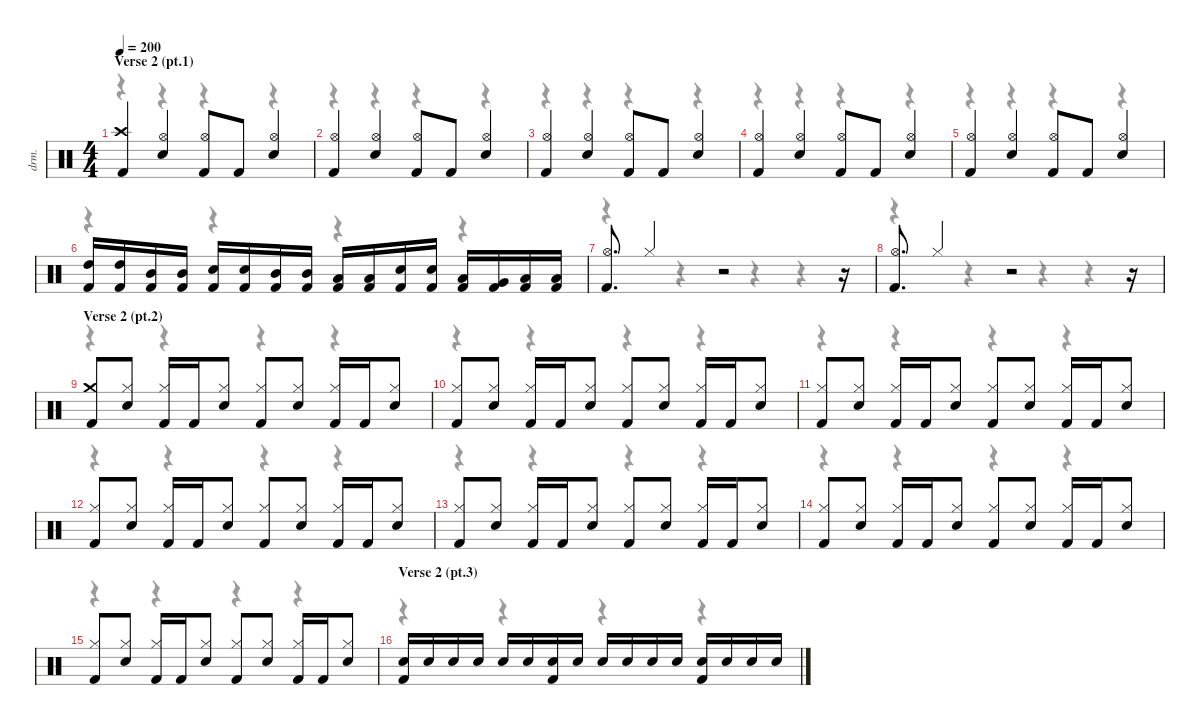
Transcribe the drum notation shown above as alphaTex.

\defaultSystemsLayout 4
\hideDynamics
\bracketExtendMode nobrackets
\otherSystemsTrackNameOrientation horizontal
\track ("David Mackintosh (Drums)" "drm.") {instrument percussion}
\staff {score}
\articulation defaults
\voice
\ts (4 4)
\section ("" "Verse 2 (pt.1)")
\tempo 200
\clef neutral
\ks c
("Kick (hit) 2" "Crash high (hit)").4{dy f} ("Snare (hit) 2" "Hi-Hat (open)").4 ("Kick (hit) 2" "Hi-Hat (open)").8 "Kick (hit) 2".8 ("Snare (hit) 2" "Hi-Hat (open)").4 |
("Kick (hit) 2" "Hi-Hat (open)").4 ("Snare (hit) 2" "Hi-Hat (open)").4 ("Kick (hit) 2" "Hi-Hat (open)").8 "Kick (hit) 2".8 ("Snare (hit) 2" "Hi-Hat (open)").4 |
("Kick (hit) 2" "Hi-Hat (open)").4 ("Snare (hit) 2" "Hi-Hat (open)").4 ("Kick (hit) 2" "Hi-Hat (open)").8 "Kick (hit) 2".8 ("Snare (hit) 2" "Hi-Hat (open)").4 |
("Kick (hit) 2" "Hi-Hat (open)").4 ("Snare (hit) 2" "Hi-Hat (open)").4 ("Kick (hit) 2" "Hi-Hat (open)").8 "Kick (hit) 2".8 ("Snare (hit) 2" "Hi-Hat (open)").4 |
("Kick (hit) 2" "Hi-Hat (open)").4 ("Snare (hit) 2" "Hi-Hat (open)").4 ("Kick (hit) 2" "Hi-Hat (open)").8 "Kick (hit) 2".8 ("Snare (hit) 2" "Hi-Hat (open)").4 |
("Kick (hit) 2" "High Tom (hit)").16 ("Kick (hit) 2" "High Tom (hit)").16 ("Kick (hit) 2" "Mid Tom (hit)").16 ("Kick (hit) 2" "Mid Tom (hit)").16 ("Kick (hit) 2" "Snare (hit) 2").16 ("Kick (hit) 2" "Snare (hit) 2").16 ("Kick (hit) 2" "Mid Tom (hit)").16 ("Kick (hit) 2" "Mid Tom (hit)").16 ("Kick (hit) 2" "Low Tom (hit)").16 ("Kick (hit) 2" "Low Tom (hit)").16 ("Kick (hit) 2" "Snare (hit) 2").16 ("Kick (hit) 2" "Snare (hit) 2").16 ("Kick (hit) 2" "Low Tom (hit)").16 ("Kick (hit) 2" "Very Low Tom (hit)").16 ("Kick (hit) 2" "Low Floor Tom (hit)").16 ("Kick (hit) 2" "Low Floor Tom (hit)").16 |
("Kick (hit) 2" "Hi-Hat (open)").8{d} "Hi-Hat (closed)".4{dy ppp} r.2 r.16 |
("Kick (hit) 2" "Hi-Hat (open)").8{d dy f} "Hi-Hat (closed)".4{dy ppp} r.2 r.16 |
\section ("" "Verse 2 (pt.2)")
("Kick (hit) 2" "Crash medium (hit)").8{dy f} ("Snare (hit) 2" "Hi-Hat (closed)").8 ("Kick (hit) 2" "Hi-Hat (closed)").16 "Kick (hit) 2".16 ("Snare (hit) 2" "Hi-Hat (closed)").8 ("Kick (hit) 2" "Hi-Hat (closed)").8 ("Snare (hit) 2" "Hi-Hat (closed)").8 ("Kick (hit) 2" "Hi-Hat (closed)").16 "Kick (hit) 2".16 ("Snare (hit) 2" "Hi-Hat (closed)").8 |
("Kick (hit) 2" "Hi-Hat (closed)").8 ("Snare (hit) 2" "Hi-Hat (closed)").8 ("Kick (hit) 2" "Hi-Hat (closed)").16 "Kick (hit) 2".16 ("Snare (hit) 2" "Hi-Hat (closed)").8 ("Kick (hit) 2" "Hi-Hat (closed)").8 ("Snare (hit) 2" "Hi-Hat (closed)").8 ("Kick (hit) 2" "Hi-Hat (closed)").16 "Kick (hit) 2".16 ("Snare (hit) 2" "Hi-Hat (closed)").8 |
("Kick (hit) 2" "Hi-Hat (closed)").8 ("Snare (hit) 2" "Hi-Hat (closed)").8 ("Kick (hit) 2" "Hi-Hat (closed)").16 "Kick (hit) 2".16 ("Snare (hit) 2" "Hi-Hat (closed)").8 ("Kick (hit) 2" "Hi-Hat (closed)").8 ("Snare (hit) 2" "Hi-Hat (closed)").8 ("Kick (hit) 2" "Hi-Hat (closed)").16 "Kick (hit) 2".16 ("Snare (hit) 2" "Hi-Hat (closed)").8 |
("Kick (hit) 2" "Hi-Hat (closed)").8 ("Snare (hit) 2" "Hi-Hat (closed)").8 ("Kick (hit) 2" "Hi-Hat (closed)").16 "Kick (hit) 2".16 ("Snare (hit) 2" "Hi-Hat (closed)").8 ("Kick (hit) 2" "Hi-Hat (closed)").8 ("Snare (hit) 2" "Hi-Hat (closed)").8 ("Kick (hit) 2" "Hi-Hat (closed)").16 "Kick (hit) 2".16 ("Snare (hit) 2" "Hi-Hat (closed)").8 |
("Kick (hit) 2" "Hi-Hat (closed)").8 ("Snare (hit) 2" "Hi-Hat (closed)").8 ("Kick (hit) 2" "Hi-Hat (closed)").16 "Kick (hit) 2".16 ("Snare (hit) 2" "Hi-Hat (closed)").8 ("Kick (hit) 2" "Hi-Hat (closed)").8 ("Snare (hit) 2" "Hi-Hat (closed)").8 ("Kick (hit) 2" "Hi-Hat (closed)").16 "Kick (hit) 2".16 ("Snare (hit) 2" "Hi-Hat (closed)").8 |
("Kick (hit) 2" "Hi-Hat (closed)").8 ("Snare (hit) 2" "Hi-Hat (closed)").8 ("Kick (hit) 2" "Hi-Hat (closed)").16 "Kick (hit) 2".16 ("Snare (hit) 2" "Hi-Hat (closed)").8 ("Kick (hit) 2" "Hi-Hat (closed)").8 ("Snare (hit) 2" "Hi-Hat (closed)").8 ("Kick (hit) 2" "Hi-Hat (closed)").16 "Kick (hit) 2".16 ("Snare (hit) 2" "Hi-Hat (closed)").8 |
("Kick (hit) 2" "Hi-Hat (closed)").8 ("Snare (hit) 2" "Hi-Hat (closed)").8 ("Kick (hit) 2" "Hi-Hat (closed)").16 "Kick (hit) 2".16 ("Snare (hit) 2" "Hi-Hat (closed)").8 ("Kick (hit) 2" "Hi-Hat (closed)").8 ("Snare (hit) 2" "Hi-Hat (closed)").8 ("Kick (hit) 2" "Hi-Hat (closed)").16 "Kick (hit) 2".16 ("Snare (hit) 2" "Hi-Hat (closed)").8 |
\section ("" "Verse 2 (pt.3)")
("Kick (hit) 2" "Snare (hit) 2").16{dy ff} "Snare (hit) 2".16{dy f} "Snare (hit) 2".16 "Snare (hit) 2".16 "Snare (hit) 2".16 "Snare (hit) 2".16 ("Kick (hit) 2" "Snare (hit) 2").16{dy ff} "Snare (hit) 2".16{dy f} "Snare (hit) 2".16 "Snare (hit) 2".16 "Snare (hit) 2".16 "Snare (hit) 2".16 ("Kick (hit) 2" "Snare (hit) 2").16{dy ff} "Snare (hit) 2".16{dy f} "Snare (hit) 2".16 "Snare (hit) 2".16
\voice
\clef neutral
\ottava regular
\simile none
\ks c
r.4{dy mf} r.4 r.4 r.4 |
r.4 r.4 r.4 r.4 |
r.4 r.4 r.4 r.4 |
r.4 r.4 r.4 r.4 |
r.4 r.4 r.4 r.4 |
r.4 r.4 r.4 r.4 |
r.4 r.4 r.4 r.4 |
r.4 r.4 r.4 r.4 |
r.4 r.4 r.4 r.4 |
r.4 r.4 r.4 r.4 |
r.4 r.4 r.4 r.4 |
r.4 r.4 r.4 r.4 |
r.4 r.4 r.4 r.4 |
r.4 r.4 r.4 r.4 |
r.4 r.4 r.4 r.4 |
r.4 r.4 r.4 r.4
